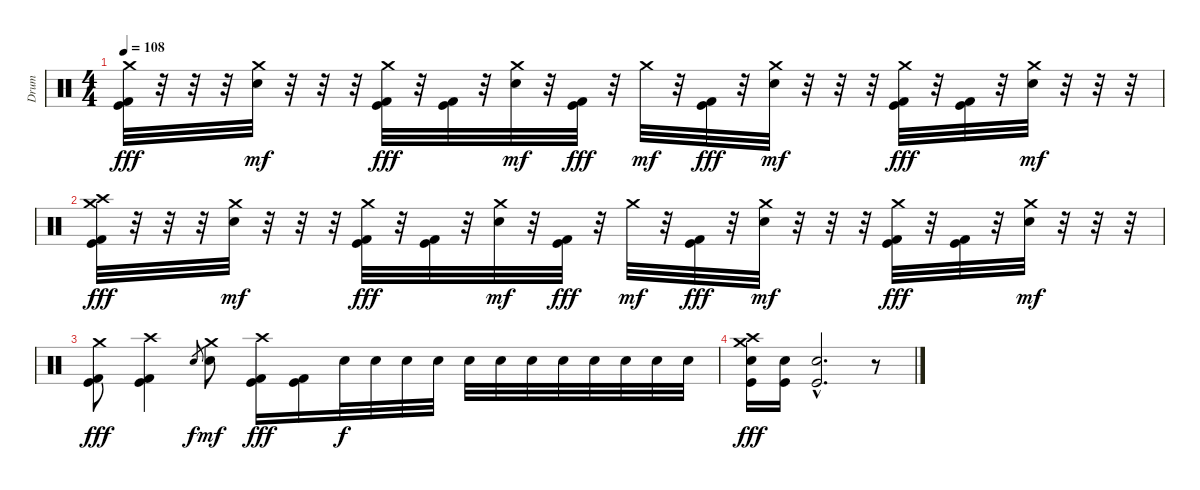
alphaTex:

\track ("Drum" "Drum") {instrument percussion}
\staff {score}
\articulation defaults
\ts (4 4)
\tempo 108
\clef neutral
\ks c
("Crash medium (hit)" "Kick (hit) 2" "Kick (hit)").32{dy fff} r.32 r.32 r.32 ("Crash medium (hit)" "Electric Snare (hit)").32{dy mf} r.32 r.32 r.32 ("Crash medium (hit)" "Kick (hit) 2" "Kick (hit)").32{dy fff} r.32 ("Kick (hit) 2" "Kick (hit)").32 r.32 ("Crash medium (hit)" "Electric Snare (hit)").32{dy mf} r.32 ("Kick (hit) 2" "Kick (hit)").32{dy fff} r.32 "Crash medium (hit)".32{dy mf} r.32 ("Kick (hit) 2" "Kick (hit)").32{dy fff} r.32 ("Crash medium (hit)" "Electric Snare (hit)").32{dy mf} r.32 r.32 r.32 ("Crash medium (hit)" "Kick (hit) 2" "Kick (hit)").32{dy fff} r.32 ("Kick (hit) 2" "Kick (hit)").32 r.32 ("Crash medium (hit)" "Electric Snare (hit)").32{dy mf} r.32 r.32 r.32 |
("Crash medium (hit)" "Crash high (hit)" "Kick (hit) 2" "Kick (hit)").32{dy fff} r.32 r.32 r.32 ("Crash medium (hit)" "Electric Snare (hit)").32{dy mf} r.32 r.32 r.32 ("Crash medium (hit)" "Kick (hit) 2" "Kick (hit)").32{dy fff} r.32 ("Kick (hit) 2" "Kick (hit)").32 r.32 ("Crash medium (hit)" "Electric Snare (hit)").32{dy mf} r.32 ("Kick (hit) 2" "Kick (hit)").32{dy fff} r.32 "Crash medium (hit)".32{dy mf} r.32 ("Kick (hit) 2" "Kick (hit)").32{dy fff} r.32 ("Crash medium (hit)" "Electric Snare (hit)").32{dy mf} r.32 r.32 r.32 ("Crash medium (hit)" "Kick (hit) 2" "Kick (hit)").32{dy fff} r.32 ("Kick (hit) 2" "Kick (hit)").32 r.32 ("Crash medium (hit)" "Electric Snare (hit)").32{dy mf} r.32 r.32 r.32 |
("Crash medium (hit)" "Kick (hit) 2" "Kick (hit)").8{dy fff} ("Crash high (hit)" "Kick (hit) 2" "Kick (hit)").4 "Electric Snare (hit)"{sl}.8{gr dy f} ("Crash medium (hit)" "Electric Snare (hit)").8{dy mf} ("Crash high (hit)" "Kick (hit) 2" "Kick (hit)").16{dy fff} ("Kick (hit) 2" "Kick (hit)").16 "Electric Snare (hit)".32{dy f} "Electric Snare (hit)".32 "Electric Snare (hit)".32 "Electric Snare (hit)".32 "Electric Snare (hit)".32 "Electric Snare (hit)".32 "Electric Snare (hit)".32 "Electric Snare (hit)".32 "Electric Snare (hit)".32 "Electric Snare (hit)".32 "Electric Snare (hit)".32 "Electric Snare (hit)".32 |
("Crash medium (hit)" "Crash high (hit)" "Electric Snare (hit)" "Kick (hit)").16{dy fff} ("Electric Snare (hit)" "Kick (hit)").16 ("Electric Snare (hit)"{hac} "Kick (hit)"{hac}).2{d} r.8
